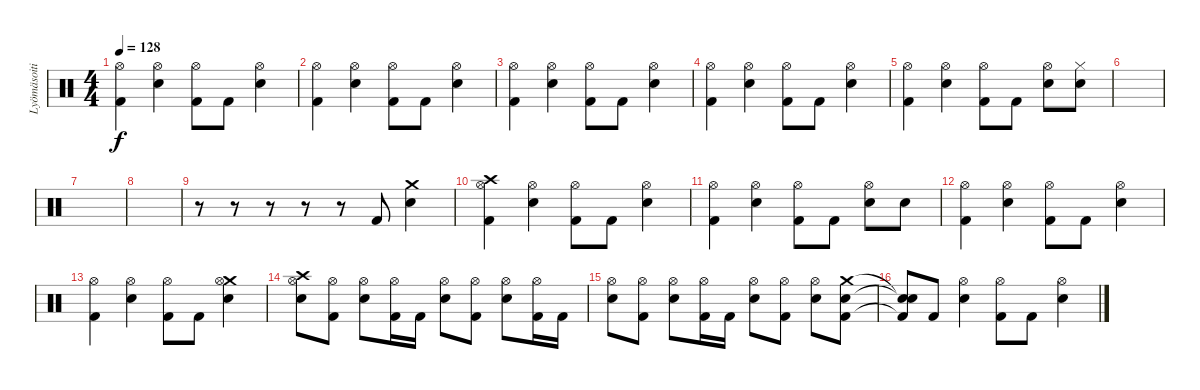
\track ("Lyömäsoitin" "Lyömäsoiti") {instrument percussion}
\staff {score}
\articulation defaults
\ts (4 4)
\tempo 128
\clef neutral
\ks c
("Hi-Hat (open)" "Kick (hit) 2").4{dy f} ("Hi-Hat (open)" "Electric Snare (hit)").4 ("Hi-Hat (open)" "Kick (hit) 2").8 "Kick (hit) 2".8 ("Hi-Hat (open)" "Electric Snare (hit)").4 |
("Hi-Hat (open)" "Kick (hit) 2").4 ("Hi-Hat (open)" "Electric Snare (hit)").4 ("Hi-Hat (open)" "Kick (hit) 2").8 "Kick (hit) 2".8 ("Hi-Hat (open)" "Electric Snare (hit)").4 |
("Hi-Hat (open)" "Kick (hit) 2").4 ("Hi-Hat (open)" "Electric Snare (hit)").4 ("Hi-Hat (open)" "Kick (hit) 2").8 "Kick (hit) 2".8 ("Hi-Hat (open)" "Electric Snare (hit)").4 |
("Hi-Hat (open)" "Kick (hit) 2").4 ("Hi-Hat (open)" "Electric Snare (hit)").4 ("Hi-Hat (open)" "Kick (hit) 2").8 "Kick (hit) 2".8 ("Hi-Hat (open)" "Electric Snare (hit)").4 |
("Hi-Hat (open)" "Kick (hit) 2").4 ("Hi-Hat (open)" "Electric Snare (hit)").4 ("Hi-Hat (open)" "Kick (hit) 2").8 "Kick (hit) 2".8 ("Hi-Hat (open)" "Electric Snare (hit)").8 ("Hi-Hat (closed)" "Electric Snare (hit)").8 |
|
|
|
r.8 r.8 r.8 r.8 r.8 "Kick (hit) 2".8 ("Crash medium (hit)" "Electric Snare (hit)").4 |
("Crash high (hit)" "Hi-Hat (open)" "Kick (hit) 2").4 ("Hi-Hat (open)" "Electric Snare (hit)").4 ("Hi-Hat (open)" "Kick (hit) 2").8 "Kick (hit) 2".8 ("Hi-Hat (open)" "Electric Snare (hit)").4 |
("Hi-Hat (open)" "Kick (hit) 2").4 ("Hi-Hat (open)" "Electric Snare (hit)").4 ("Hi-Hat (open)" "Kick (hit) 2").8 "Kick (hit) 2".8 ("Hi-Hat (open)" "Electric Snare (hit)").8 "Electric Snare (hit)".8 |
("Hi-Hat (open)" "Kick (hit) 2").4 ("Hi-Hat (open)" "Electric Snare (hit)").4 ("Hi-Hat (open)" "Kick (hit) 2").8 "Kick (hit) 2".8 ("Hi-Hat (open)" "Electric Snare (hit)").4 |
("Hi-Hat (open)" "Kick (hit) 2").4 ("Hi-Hat (open)" "Electric Snare (hit)").4 ("Hi-Hat (open)" "Kick (hit) 2").8 "Kick (hit) 2".8 ("Crash medium (hit)" "Hi-Hat (open)" "Electric Snare (hit)").4 |
("Crash high (hit)" "Hi-Hat (open)" "Electric Snare (hit)").8 ("Hi-Hat (open)" "Kick (hit) 2").8 ("Hi-Hat (open)" "Electric Snare (hit)").8 ("Hi-Hat (open)" "Kick (hit) 2").16 "Kick (hit) 2".16 ("Hi-Hat (open)" "Electric Snare (hit)").8 ("Hi-Hat (open)" "Kick (hit) 2").8 ("Hi-Hat (open)" "Electric Snare (hit)").8 ("Hi-Hat (open)" "Kick (hit) 2").16 "Kick (hit) 2".16 |
("Hi-Hat (open)" "Electric Snare (hit)").8 ("Hi-Hat (open)" "Kick (hit) 2").8 ("Hi-Hat (open)" "Electric Snare (hit)").8 ("Hi-Hat (open)" "Kick (hit) 2").16 "Kick (hit) 2".16 ("Hi-Hat (open)" "Electric Snare (hit)").8 ("Hi-Hat (open)" "Kick (hit) 2").8 ("Hi-Hat (open)" "Electric Snare (hit)").8 ("Crash medium (hit)" "Electric Snare (hit)" "Kick (hit) 2").8 |
("Snare (hit)"{t} "Snare (hit)"{t} "Kick (hit) 2"{t}).8 "Kick (hit) 2".8 ("Hi-Hat (open)" "Electric Snare (hit)").4 ("Hi-Hat (open)" "Kick (hit) 2").8 "Kick (hit) 2".8 ("Hi-Hat (open)" "Electric Snare (hit)").4
